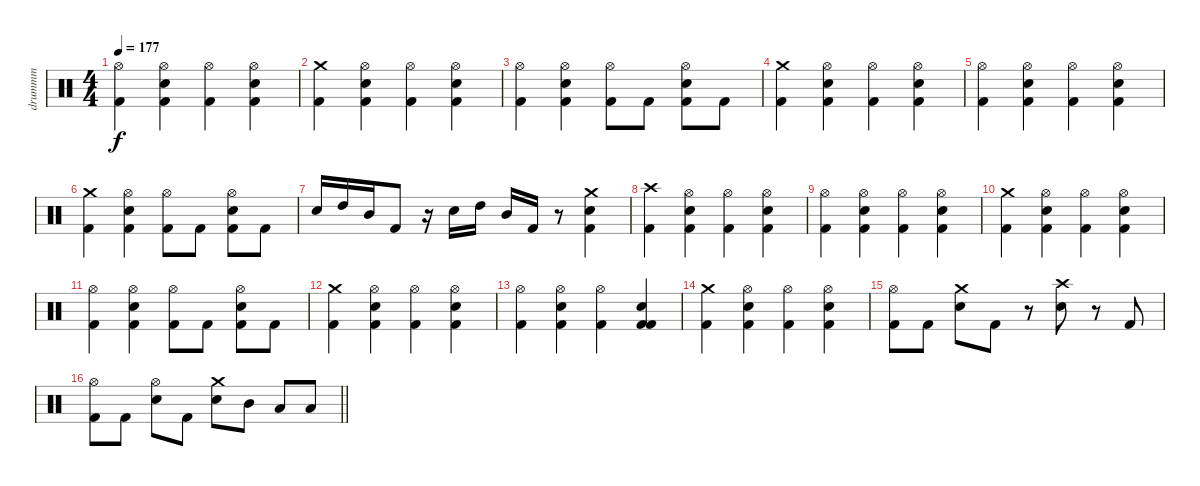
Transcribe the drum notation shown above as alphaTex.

\track ("drummm" "drummm") {instrument percussion}
\staff {score}
\articulation defaults
\ts (4 4)
\tempo 177
\clef neutral
\ks c
("Hi-Hat (open)" "Kick (hit) 2").4{dy f} ("Hi-Hat (open)" "Snare (hit) 2" "Kick (hit) 2").4 ("Hi-Hat (open)" "Kick (hit) 2").4 ("Hi-Hat (open)" "Snare (hit) 2" "Kick (hit) 2").4 |
("Crash medium (hit)" "Kick (hit) 2").4 ("Hi-Hat (open)" "Snare (hit) 2" "Kick (hit) 2").4 ("Hi-Hat (open)" "Kick (hit) 2").4 ("Hi-Hat (open)" "Snare (hit) 2" "Kick (hit) 2").4 |
("Hi-Hat (open)" "Kick (hit) 2").4 ("Hi-Hat (open)" "Snare (hit) 2" "Kick (hit) 2").4 ("Hi-Hat (open)" "Kick (hit) 2").8 "Kick (hit) 2".8 ("Hi-Hat (open)" "Snare (hit) 2" "Kick (hit) 2").8 "Kick (hit) 2".8 |
("Crash medium (hit)" "Kick (hit) 2").4 ("Hi-Hat (open)" "Snare (hit) 2" "Kick (hit) 2").4 ("Hi-Hat (open)" "Kick (hit) 2").4 ("Hi-Hat (open)" "Snare (hit) 2" "Kick (hit) 2").4 |
("Hi-Hat (open)" "Kick (hit) 2").4 ("Hi-Hat (open)" "Snare (hit) 2" "Kick (hit) 2").4 ("Hi-Hat (open)" "Kick (hit) 2").4 ("Hi-Hat (open)" "Snare (hit) 2" "Kick (hit) 2").4 |
("Crash medium (hit)" "Kick (hit) 2").4 ("Hi-Hat (open)" "Snare (hit) 2" "Kick (hit) 2").4 ("Hi-Hat (open)" "Kick (hit) 2").8 "Kick (hit) 2".8 ("Hi-Hat (open)" "Snare (hit) 2" "Kick (hit) 2").8 "Kick (hit) 2".8 |
"Snare (hit) 2".16 "High Tom (hit)".16 "Mid Tom (hit)".16 "Kick (hit) 2".8 r.16 "Snare (hit) 2".16 "High Tom (hit)".16 "Mid Tom (hit)".16 "Kick (hit) 2".16 r.8 ("Crash medium (hit)" "Snare (hit) 2" "Kick (hit) 2").4 |
("Crash high (hit)" "Kick (hit) 2").4 ("Hi-Hat (open)" "Snare (hit) 2" "Kick (hit) 2").4 ("Hi-Hat (open)" "Kick (hit) 2").4 ("Hi-Hat (open)" "Snare (hit) 2" "Kick (hit) 2").4 |
("Hi-Hat (open)" "Kick (hit) 2").4 ("Hi-Hat (open)" "Snare (hit) 2" "Kick (hit) 2").4 ("Hi-Hat (open)" "Kick (hit) 2").4 ("Hi-Hat (open)" "Snare (hit) 2" "Kick (hit) 2").4 |
("Crash medium (hit)" "Kick (hit) 2").4 ("Hi-Hat (open)" "Snare (hit) 2" "Kick (hit) 2").4 ("Hi-Hat (open)" "Kick (hit) 2").4 ("Hi-Hat (open)" "Snare (hit) 2" "Kick (hit) 2").4 |
("Hi-Hat (open)" "Kick (hit) 2").4 ("Hi-Hat (open)" "Snare (hit) 2" "Kick (hit) 2").4 ("Hi-Hat (open)" "Kick (hit) 2").8 "Kick (hit) 2".8 ("Hi-Hat (open)" "Snare (hit) 2" "Kick (hit) 2").8 "Kick (hit) 2".8 |
("Crash medium (hit)" "Kick (hit) 2").4 ("Hi-Hat (open)" "Snare (hit) 2" "Kick (hit) 2").4 ("Hi-Hat (open)" "Kick (hit) 2").4 ("Hi-Hat (open)" "Snare (hit) 2" "Kick (hit) 2").4 |
("Hi-Hat (open)" "Kick (hit) 2").4 ("Hi-Hat (open)" "Snare (hit) 2" "Kick (hit) 2").4 ("Hi-Hat (open)" "Kick (hit) 2").4 ("Kick (hit) 2" "Snare (hit) 2" "Kick (hit) 2").4 |
("Crash medium (hit)" "Kick (hit) 2").4 ("Hi-Hat (open)" "Snare (hit) 2" "Kick (hit) 2").4 ("Hi-Hat (open)" "Kick (hit) 2").4 ("Hi-Hat (open)" "Snare (hit) 2" "Kick (hit) 2").4 |
("Hi-Hat (open)" "Kick (hit) 2").8 "Kick (hit) 2".8 ("Crash medium (hit)" "Snare (hit) 2").8 "Kick (hit) 2".8 r.8 ("Crash high (hit)" "Snare (hit) 2").8 r.8 "Kick (hit) 2".8 |
\barLineRight lightlight
("Hi-Hat (open)" "Kick (hit) 2").8 "Kick (hit) 2".8 ("Hi-Hat (open)" "Snare (hit) 2").8 "Kick (hit) 2".8 ("Crash medium (hit)" "Snare (hit) 2").8 "Mid Tom (hit)".8 "Low Tom (hit)".8 "Low Floor Tom (hit)".8
